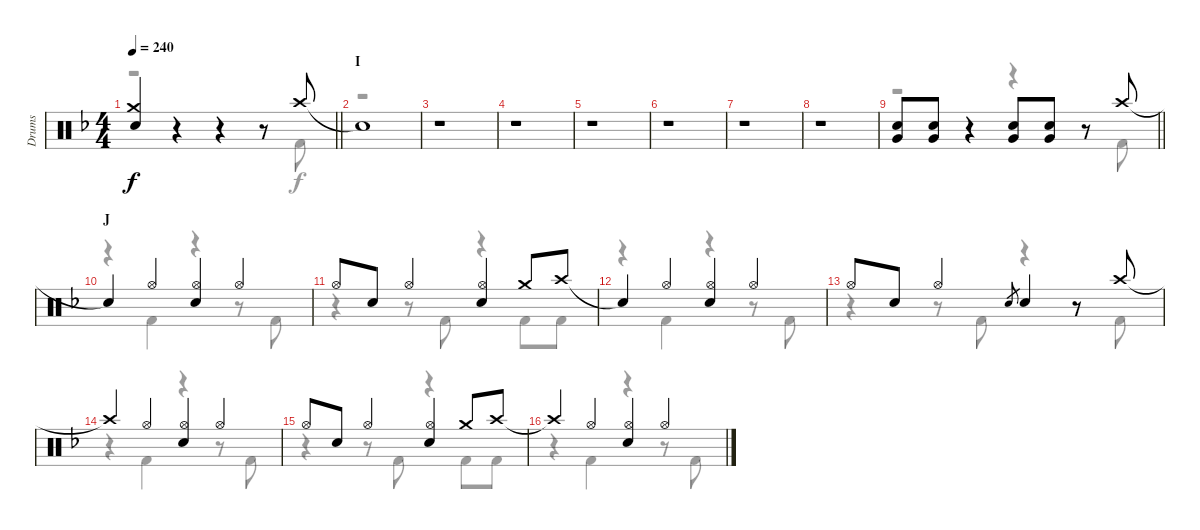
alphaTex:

\track ("Drums" "Drums") {instrument percussion}
\staff {score}
\articulation defaults
\voice
\ts (4 4)
\tempo 240
\clef neutral
\barLineRight lightlight
\ks f
("Crash medium (hit)" "Snare (hit) 2").4{dy f} r.4 r.4 r.8 "Crash high (hit)".8 |
\section ("" "I")
"Snare (hit)"{t}.1 |
r.1 |
r.1 |
r.1 |
r.1 |
r.1 |
r.1 |
\barLineRight lightlight
("Snare (hit) 2" "Very Low Tom (hit)").8 ("Snare (hit) 2" "Very Low Tom (hit)").8 r.4 ("Snare (hit) 2" "Very Low Tom (hit)").8 ("Snare (hit) 2" "Very Low Tom (hit)").8 r.8 "Crash high (hit)".8 |
\section ("" "J")
"Snare (hit)"{t}.4 "Hi-Hat (open)".4 ("Hi-Hat (open)" "Snare (hit) 2").4 "Hi-Hat (open)".4 |
"Hi-Hat (open)".8 "Snare (hit) 2".8 "Hi-Hat (open)".4 ("Hi-Hat (open)" "Snare (hit) 2").4 "Crash medium (hit)".8 "Crash high (hit)".8 |
"Snare (hit)"{t}.4 "Hi-Hat (open)".4 ("Hi-Hat (open)" "Snare (hit) 2").4 "Hi-Hat (open)".4 |
"Hi-Hat (open)".8 "Snare (hit) 2".8 "Hi-Hat (open)".4 "Snare (hit) 2".8{gr} "Snare (hit) 2".4 r.8 "Crash high (hit)".8 |
"Crash high (hit)"{t}.4 "Hi-Hat (open)".4 ("Hi-Hat (open)" "Snare (hit) 2").4 "Hi-Hat (open)".4 |
"Hi-Hat (open)".8 "Snare (hit) 2".8 "Hi-Hat (open)".4 ("Hi-Hat (open)" "Snare (hit) 2").4 "Crash medium (hit)".8 "Crash high (hit)".8 |
"Crash high (hit)"{t}.4 "Hi-Hat (open)".4 ("Hi-Hat (open)" "Snare (hit) 2").4 "Hi-Hat (open)".4
\voice
\clef neutral
\ottava regular
\simile none
\barLineRight lightlight
\ks f
r.2{dy f} r.4 r.8 "Kick (hit) 2".8 |
r.1 |
r.1 |
r.1 |
r.1 |
r.1 |
r.1 |
r.1 |
\barLineRight lightlight
r.2 r.4 r.8 "Kick (hit) 2".8 |
r.4 "Kick (hit) 2".4 r.4 r.8 "Kick (hit) 2".8 |
r.4 r.8 "Kick (hit) 2".8 r.4 "Kick (hit) 2".8 "Kick (hit) 2".8 |
r.4 "Kick (hit) 2".4 r.4 r.8 "Kick (hit) 2".8 |
r.4 r.8 "Kick (hit) 2".8 r.4 r.8 "Kick (hit) 2".8 |
r.4 "Kick (hit) 2".4 r.4 r.8 "Kick (hit) 2".8 |
r.4 r.8 "Kick (hit) 2".8 r.4 "Kick (hit) 2".8 "Kick (hit) 2".8 |
r.4 "Kick (hit) 2".4 r.4 r.8 "Kick (hit) 2".8
